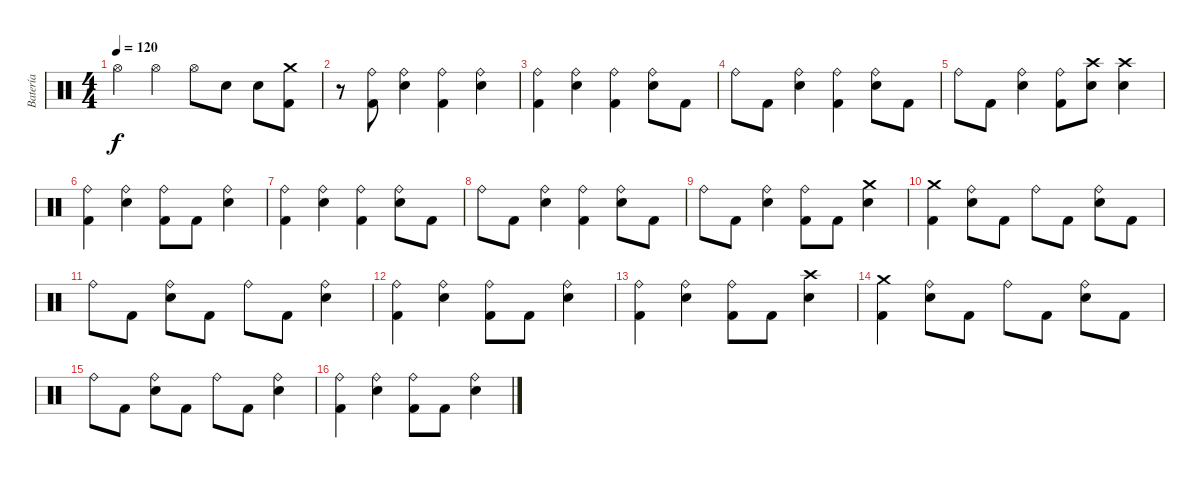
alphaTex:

\track ("Batería" "Batería") {instrument percussion}
\staff {score}
\articulation defaults
\ts (4 4)
\tempo 120
\clef neutral
\ks c "Hi-Hat (open)".4{dy f} "Hi-Hat (open)".4 "Hi-Hat (open)".8 "Electric Snare (hit)".8 "Electric Snare (hit)".8
("Kick (hit) 2" "Crash medium (hit)").8 |
r.8 ("Kick (hit) 2" "Ride (bell)").8 ("Electric Snare (hit)" "Ride (bell)").4 ("Kick (hit) 2" "Ride (bell)").4 ("Electric Snare (hit)" "Ride (bell)").4 |
("Kick (hit) 2" "Ride (bell)").4 ("Electric Snare (hit)" "Ride (bell)").4 ("Kick (hit) 2" "Ride (bell)").4 ("Electric Snare (hit)" "Ride (bell)").8 "Kick (hit) 2".8 |
"Ride (bell)".8 "Kick (hit) 2".8 ("Electric Snare (hit)" "Ride (bell)").4 ("Kick (hit) 2" "Ride (bell)").4 ("Electric Snare (hit)" "Ride (bell)").8 "Kick (hit) 2".8 |
"Ride (bell)".8 "Kick (hit) 2".8 ("Electric Snare (hit)" "Ride (bell)").4 ("Kick (hit) 2" "Ride (bell)").8 ("Electric Snare (hit)" "Crash high (hit)").8 ("Electric Snare (hit)" "Crash high (hit)").4 |
("Kick (hit) 2" "Ride (bell)").4 ("Electric Snare (hit)" "Ride (bell)").4 ("Kick (hit) 2" "Ride (bell)").8 "Kick (hit) 2".8 ("Electric Snare (hit)" "Ride (bell)").4 |
("Kick (hit) 2" "Ride (bell)").4 ("Electric Snare (hit)" "Ride (bell)").4 ("Kick (hit) 2" "Ride (bell)").4 ("Electric Snare (hit)" "Ride (bell)").8 "Kick (hit) 2".8 |
"Ride (bell)".8 "Kick (hit) 2".8 ("Electric Snare (hit)" "Ride (bell)").4 ("Kick (hit) 2" "Ride (bell)").4 ("Electric Snare (hit)" "Ride (bell)").8 "Kick (hit) 2".8 |
"Ride (bell)".8 "Kick (hit) 2".8 ("Electric Snare (hit)" "Ride (bell)").4 ("Kick (hit) 2" "Ride (bell)").8 "Kick (hit) 2".8 ("Electric Snare (hit)" "Crash medium (hit)").4 |
("Kick (hit) 2" "Crash medium (hit)").4 ("Electric Snare (hit)" "Ride (bell)").8 "Kick (hit) 2".8 "Ride (bell)".8 "Kick (hit) 2".8 ("Electric Snare (hit)" "Ride (bell)").8 "Kick (hit) 2".8 |
"Ride (bell)".8 "Kick (hit) 2".8 ("Electric Snare (hit)" "Ride (bell)").8 "Kick (hit) 2".8 "Ride (bell)".8 "Kick (hit) 2".8 ("Electric Snare (hit)" "Ride (bell)").4 |
("Kick (hit) 2" "Ride (bell)").4 ("Electric Snare (hit)" "Ride (bell)").4 ("Kick (hit) 2" "Ride (bell)").8 "Kick (hit) 2".8 ("Electric Snare (hit)" "Ride (bell)").4 |
("Kick (hit) 2" "Ride (bell)").4 ("Electric Snare (hit)" "Ride (bell)").4 ("Kick (hit) 2" "Ride (bell)").8 "Kick (hit) 2".8 ("Electric Snare (hit)" "Crash high (hit)").4 |
("Kick (hit) 2" "Crash medium (hit)").4 ("Electric Snare (hit)" "Ride (bell)").8 "Kick (hit) 2".8 "Ride (bell)".8 "Kick (hit) 2".8 ("Electric Snare (hit)" "Ride (bell)").8 "Kick (hit) 2".8 |
"Ride (bell)".8 "Kick (hit) 2".8 ("Electric Snare (hit)" "Ride (bell)").8 "Kick (hit) 2".8 "Ride (bell)".8 "Kick (hit) 2".8 ("Electric Snare (hit)" "Ride (bell)").4 |
("Kick (hit) 2" "Ride (bell)").4 ("Electric Snare (hit)" "Ride (bell)").4 ("Kick (hit) 2" "Ride (bell)").8 "Kick (hit) 2".8 ("Electric Snare (hit)" "Ride (bell)").4
